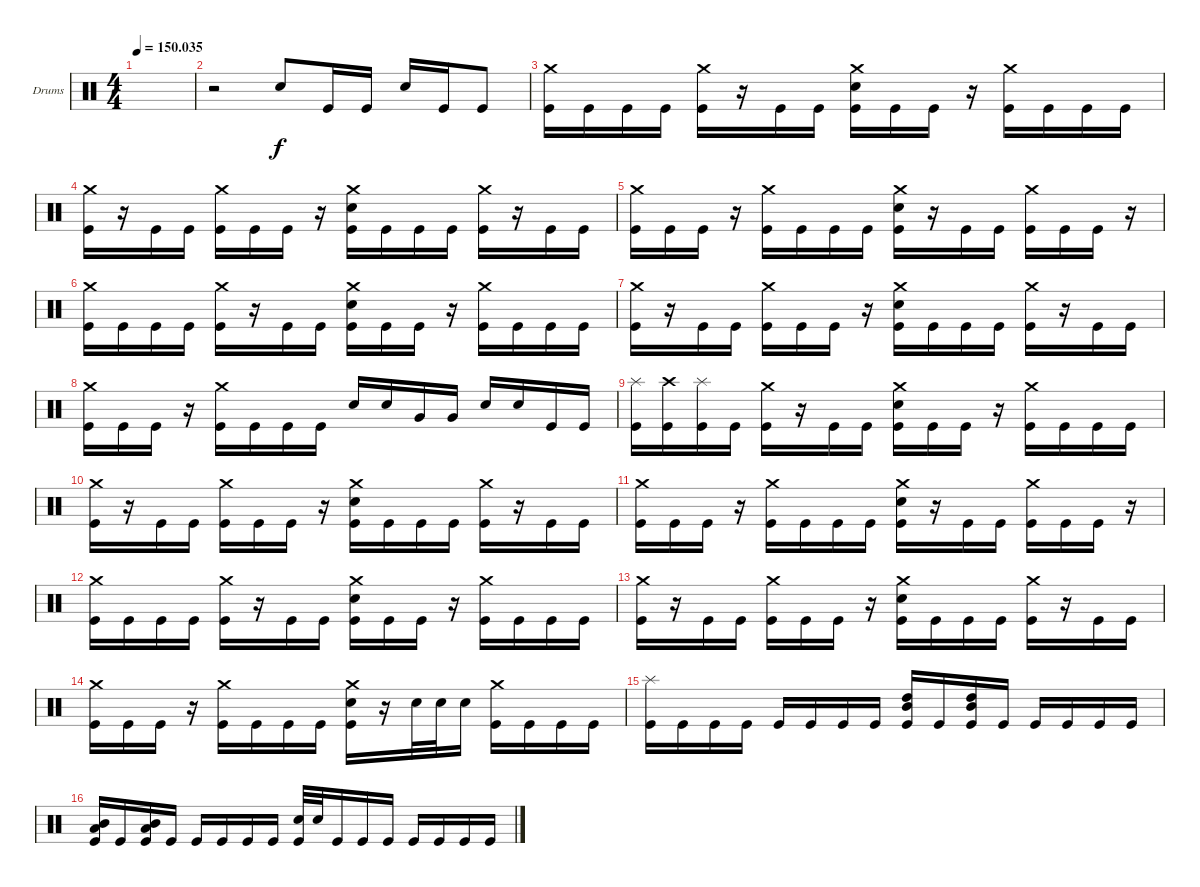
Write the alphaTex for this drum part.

\bracketExtendMode groupsimilarinstruments
\firstSystemTrackNameOrientation horizontal
\otherSystemsTrackNameOrientation horizontal
\track ("Drumkit" "Drums") {instrument percussion}
\staff {score}
\articulation defaults
\ts (4 4)
\tempo
150.035
\accidentals auto
\clef neutral
\ottava regular
\simile none
\ks c
|
r.2 "Snare (hit) 2".8 "Kick (hit)".16 "Kick (hit)".16 "Snare (hit) 2".16 "Kick (hit)".16 "Kick (hit)".8 |
("Kick (hit)" "Crash medium (hit)").16 "Kick (hit)".16 "Kick (hit)".16 "Kick (hit)".16 ("Kick (hit)" "Crash medium (hit)").16 r.16 "Kick (hit)".16 "Kick (hit)".16 ("Kick (hit)" "Crash medium (hit)" "Snare (hit) 2").16 "Kick (hit)".16 "Kick (hit)".16 r.16 ("Kick (hit)" "Crash medium (hit)").16 "Kick (hit)".16 "Kick (hit)".16 "Kick (hit)".16 |
("Kick (hit)" "Crash medium (hit)").16 r.16 "Kick (hit)".16 "Kick (hit)".16 ("Kick (hit)" "Crash medium (hit)").16 "Kick (hit)".16 "Kick (hit)".16 r.16 ("Kick (hit)" "Crash medium (hit)" "Snare (hit) 2").16 "Kick (hit)".16 "Kick (hit)".16 "Kick (hit)".16 ("Kick (hit)" "Crash medium (hit)").16 r.16 "Kick (hit)".16 "Kick (hit)".16 |
("Kick (hit)" "Crash medium (hit)").16 "Kick (hit)".16 "Kick (hit)".16 r.16 ("Kick (hit)" "Crash medium (hit)").16 "Kick (hit)".16 "Kick (hit)".16 "Kick (hit)".16 ("Kick (hit)" "Crash medium (hit)" "Snare (hit) 2").16 r.16 "Kick (hit)".16 "Kick (hit)".16 ("Kick (hit)" "Crash medium (hit)").16 "Kick (hit)".16 "Kick (hit)".16 r.16 |
("Kick (hit)" "Crash medium (hit)").16 "Kick (hit)".16 "Kick (hit)".16 "Kick (hit)".16 ("Kick (hit)" "Crash medium (hit)").16 r.16 "Kick (hit)".16 "Kick (hit)".16 ("Kick (hit)" "Crash medium (hit)" "Snare (hit) 2").16 "Kick (hit)".16 "Kick (hit)".16 r.16 ("Kick (hit)" "Crash medium (hit)").16 "Kick (hit)".16 "Kick (hit)".16 "Kick (hit)".16 |
("Kick (hit)" "Crash medium (hit)").16 r.16 "Kick (hit)".16 "Kick (hit)".16 ("Kick (hit)" "Crash medium (hit)").16 "Kick (hit)".16 "Kick (hit)".16 r.16 ("Kick (hit)" "Crash medium (hit)" "Snare (hit) 2").16 "Kick (hit)".16 "Kick (hit)".16 "Kick (hit)".16 ("Kick (hit)" "Crash medium (hit)").16 r.16 "Kick (hit)".16 "Kick (hit)".16 |
("Kick (hit)" "Crash medium (hit)").16 "Kick (hit)".16 "Kick (hit)".16 r.16 ("Kick (hit)" "Crash medium (hit)").16 "Kick (hit)".16 "Kick (hit)".16 "Kick (hit)".16 "Snare (hit) 2".16 "Snare (hit) 2".16 "Very Low Tom (hit)".16 "Very Low Tom (hit)".16 "Snare (hit) 2".16 "Snare (hit) 2".16 "Kick (hit)".16 "Kick (hit)".16 |
("Kick (hit)" "Splash (hit)").16 ("Kick (hit)" "Crash high (hit)").16 ("Kick (hit)" "Splash (hit)").16 "Kick (hit)".16 ("Kick (hit)" "Crash medium (hit)").16 r.16 "Kick (hit)".16 "Kick (hit)".16 ("Kick (hit)" "Crash medium (hit)" "Snare (hit) 2").16 "Kick (hit)".16 "Kick (hit)".16 r.16 ("Kick (hit)" "Crash medium (hit)").16 "Kick (hit)".16 "Kick (hit)".16 "Kick (hit)".16 |
("Kick (hit)" "Crash medium (hit)").16 r.16 "Kick (hit)".16 "Kick (hit)".16 ("Kick (hit)" "Crash medium (hit)").16 "Kick (hit)".16 "Kick (hit)".16 r.16 ("Kick (hit)" "Crash medium (hit)" "Snare (hit) 2").16 "Kick (hit)".16 "Kick (hit)".16 "Kick (hit)".16 ("Kick (hit)" "Crash medium (hit)").16 r.16 "Kick (hit)".16 "Kick (hit)".16 |
("Kick (hit)" "Crash medium (hit)").16 "Kick (hit)".16 "Kick (hit)".16 r.16 ("Kick (hit)" "Crash medium (hit)").16 "Kick (hit)".16 "Kick (hit)".16 "Kick (hit)".16 ("Kick (hit)" "Crash medium (hit)" "Snare (hit) 2").16 r.16 "Kick (hit)".16 "Kick (hit)".16 ("Kick (hit)" "Crash medium (hit)").16 "Kick (hit)".16 "Kick (hit)".16 r.16 |
("Kick (hit)" "Crash medium (hit)").16 "Kick (hit)".16 "Kick (hit)".16 "Kick (hit)".16 ("Kick (hit)" "Crash medium (hit)").16 r.16 "Kick (hit)".16 "Kick (hit)".16 ("Kick (hit)" "Crash medium (hit)" "Snare (hit) 2").16 "Kick (hit)".16 "Kick (hit)".16 r.16 ("Kick (hit)" "Crash medium (hit)").16 "Kick (hit)".16 "Kick (hit)".16 "Kick (hit)".16 |
("Kick (hit)" "Crash medium (hit)").16 r.16 "Kick (hit)".16 "Kick (hit)".16 ("Kick (hit)" "Crash medium (hit)").16 "Kick (hit)".16 "Kick (hit)".16 r.16 ("Kick (hit)" "Crash medium (hit)" "Snare (hit) 2").16 "Kick (hit)".16 "Kick (hit)".16 "Kick (hit)".16 ("Kick (hit)" "Crash medium (hit)").16 r.16 "Kick (hit)".16 "Kick (hit)".16 |
("Kick (hit)" "Crash medium (hit)").16 "Kick (hit)".16 "Kick (hit)".16 r.16 ("Kick (hit)" "Crash medium (hit)").16 "Kick (hit)".16 "Kick (hit)".16 "Kick (hit)".16 ("Kick (hit)" "Crash medium (hit)" "Snare (hit) 2").16 r.16 "Snare (hit) 2".32 "Snare (hit) 2".32 "Snare (hit) 2".16 ("Kick (hit)" "Crash medium (hit)").16 "Kick (hit)".16 "Kick (hit)".16 "Kick (hit)".16 |
("Kick (hit)" "Splash (hit)").16 "Kick (hit)".16 "Kick (hit)".16 "Kick (hit)".16 "Kick (hit)".16 "Kick (hit)".16 "Kick (hit)".16 "Kick (hit)".16 ("Kick (hit)" "High Tom (hit)" "Mid Tom (hit)").16 "Kick (hit)".16 ("Kick (hit)" "Mid Tom (hit)" "High Tom (hit)").16 "Kick (hit)".16 "Kick (hit)".16 "Kick (hit)".16 "Kick (hit)".16 "Kick (hit)".16 |
("Kick (hit)" "Low Tom (hit)" "Mid Tom (hit)").16 "Kick (hit)".16 ("Kick (hit)" "Mid Tom (hit)" "Low Tom (hit)").16 "Kick (hit)".16 "Kick (hit)".16 "Kick (hit)".16 "Kick (hit)".16 "Kick (hit)".16 ("Snare (hit) 2" "Kick (hit)").32 "Snare (hit) 2".32 "Kick (hit)".16 "Kick (hit)".16 "Kick (hit)".16 "Kick (hit)".16 "Kick (hit)".16 "Kick (hit)".16 "Kick (hit)".16
